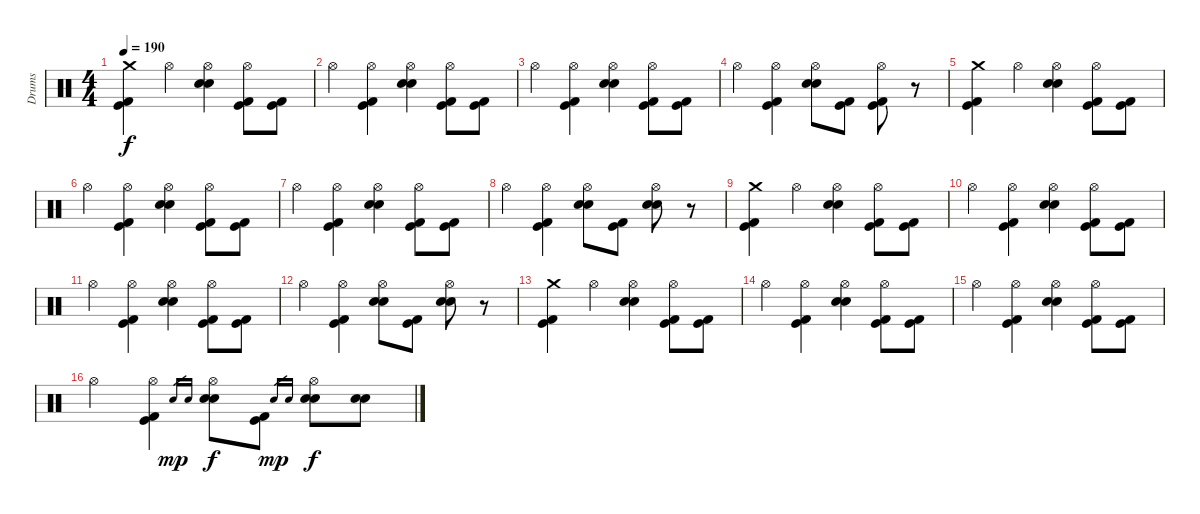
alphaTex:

\track ("Drums" "Drums") {instrument percussion}
\staff {score}
\articulation defaults
\ts (4 4)
\tempo 190
\clef neutral
\ks c
("Crash medium (hit)" "Kick (hit) 2" "Kick (hit)").4{dy f} "Hi-Hat (open)".4 ("Hi-Hat (open)" "Snare (hit) 2" "Snare (hit) 2").4 ("Hi-Hat (open)" "Kick (hit) 2" "Kick (hit)").8 ("Kick (hit) 2" "Kick (hit)").8 |
"Hi-Hat (open)".4 ("Hi-Hat (open)" "Kick (hit) 2" "Kick (hit)").4 ("Hi-Hat (open)" "Snare (hit) 2" "Snare (hit) 2").4 ("Hi-Hat (open)" "Kick (hit) 2" "Kick (hit)").8 ("Kick (hit) 2" "Kick (hit)").8 |
"Hi-Hat (open)".4 ("Hi-Hat (open)" "Kick (hit) 2" "Kick (hit)").4 ("Hi-Hat (open)" "Snare (hit) 2" "Snare (hit) 2").4 ("Hi-Hat (open)" "Kick (hit) 2" "Kick (hit)").8 ("Kick (hit) 2" "Kick (hit)").8 |
"Hi-Hat (open)".4 ("Hi-Hat (open)" "Kick (hit) 2" "Kick (hit)").4 ("Hi-Hat (open)" "Snare (hit) 2" "Snare (hit) 2").8 ("Kick (hit) 2" "Kick (hit)").8 ("Hi-Hat (open)" "Kick (hit) 2" "Kick (hit)").8 r.8 |
("Crash medium (hit)" "Kick (hit) 2" "Kick (hit)").4 "Hi-Hat (open)".4 ("Hi-Hat (open)" "Snare (hit) 2" "Snare (hit) 2").4 ("Hi-Hat (open)" "Kick (hit) 2" "Kick (hit)").8 ("Kick (hit) 2" "Kick (hit)").8 |
"Hi-Hat (open)".4 ("Hi-Hat (open)" "Kick (hit) 2" "Kick (hit)").4 ("Hi-Hat (open)" "Snare (hit) 2" "Snare (hit) 2").4 ("Hi-Hat (open)" "Kick (hit) 2" "Kick (hit)").8 ("Kick (hit) 2" "Kick (hit)").8 |
"Hi-Hat (open)".4 ("Hi-Hat (open)" "Kick (hit) 2" "Kick (hit)").4 ("Hi-Hat (open)" "Snare (hit) 2" "Snare (hit) 2").4 ("Hi-Hat (open)" "Kick (hit) 2" "Kick (hit)").8 ("Kick (hit) 2" "Kick (hit)").8 |
"Hi-Hat (open)".4 ("Hi-Hat (open)" "Kick (hit) 2" "Kick (hit)").4 ("Hi-Hat (open)" "Snare (hit) 2" "Snare (hit) 2").8 ("Kick (hit) 2" "Kick (hit)").8 ("Hi-Hat (open)" "Snare (hit) 2" "Snare (hit) 2").8 r.8 |
("Crash medium (hit)" "Kick (hit) 2" "Kick (hit)").4 "Hi-Hat (open)".4 ("Hi-Hat (open)" "Snare (hit) 2" "Snare (hit) 2").4 ("Hi-Hat (open)" "Kick (hit) 2" "Kick (hit)").8 ("Kick (hit) 2" "Kick (hit)").8 |
"Hi-Hat (open)".4 ("Hi-Hat (open)" "Kick (hit) 2" "Kick (hit)").4 ("Hi-Hat (open)" "Snare (hit) 2" "Snare (hit) 2").4 ("Hi-Hat (open)" "Kick (hit) 2" "Kick (hit)").8 ("Kick (hit) 2" "Kick (hit)").8 |
"Hi-Hat (open)".4 ("Hi-Hat (open)" "Kick (hit) 2" "Kick (hit)").4 ("Hi-Hat (open)" "Snare (hit) 2" "Snare (hit) 2").4 ("Hi-Hat (open)" "Kick (hit) 2" "Kick (hit)").8 ("Kick (hit) 2" "Kick (hit)").8 |
"Hi-Hat (open)".4 ("Hi-Hat (open)" "Kick (hit) 2" "Kick (hit)").4 ("Hi-Hat (open)" "Snare (hit) 2" "Snare (hit) 2").8 ("Kick (hit) 2" "Kick (hit)").8 ("Hi-Hat (open)" "Snare (hit) 2" "Snare (hit) 2").8 r.8 |
("Crash medium (hit)" "Kick (hit) 2" "Kick (hit)").4 "Hi-Hat (open)".4 ("Hi-Hat (open)" "Snare (hit) 2" "Snare (hit) 2").4 ("Hi-Hat (open)" "Kick (hit) 2" "Kick (hit)").8 ("Kick (hit) 2" "Kick (hit)").8 |
"Hi-Hat (open)".4 ("Hi-Hat (open)" "Kick (hit) 2" "Kick (hit)").4 ("Hi-Hat (open)" "Snare (hit) 2" "Snare (hit) 2").4 ("Hi-Hat (open)" "Kick (hit) 2" "Kick (hit)").8 ("Kick (hit) 2" "Kick (hit)").8 |
"Hi-Hat (open)".4 ("Hi-Hat (open)" "Kick (hit) 2" "Kick (hit)").4 ("Hi-Hat (open)" "Snare (hit) 2" "Snare (hit) 2").4 ("Hi-Hat (open)" "Kick (hit) 2" "Kick (hit)").8 ("Kick (hit) 2" "Kick (hit)").8 |
"Hi-Hat (open)".4 ("Hi-Hat (open)" "Kick (hit) 2" "Kick (hit)").4 "Snare (hit) 2".16{gr dy mp} "Snare (hit) 2".16{gr} ("Hi-Hat (open)" "Snare (hit) 2" "Snare (hit) 2").8{dy f} ("Kick (hit) 2" "Kick (hit)").8 "Snare (hit) 2".16{gr dy mp} "Snare (hit) 2".16{gr} ("Hi-Hat (open)" "Snare (hit) 2" "Snare (hit) 2").8{dy f} ("Snare (hit) 2" "Snare (hit) 2").8
